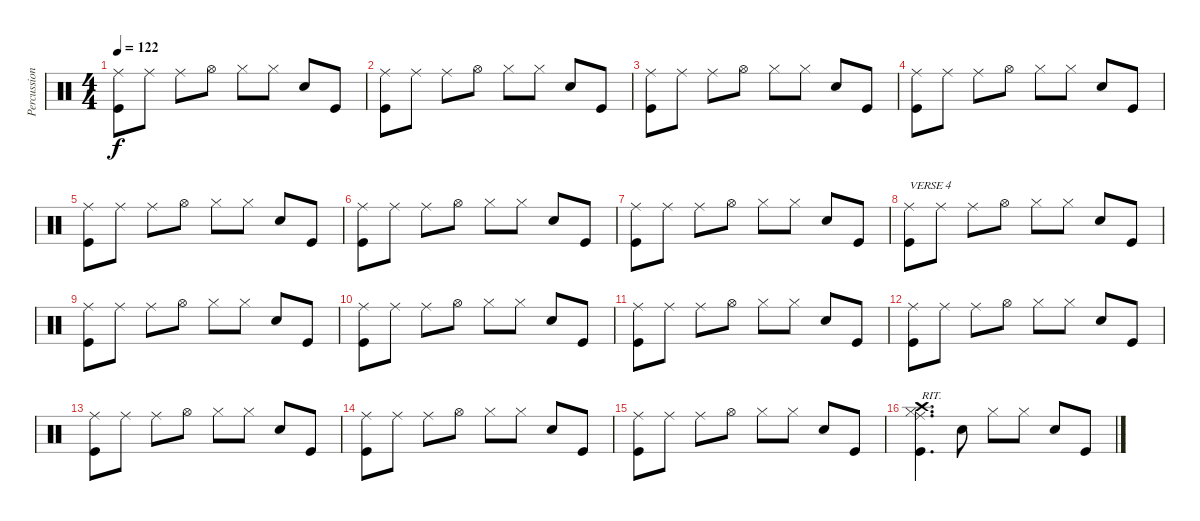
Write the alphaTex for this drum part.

\track ("Percussioni" "Percussion") {instrument percussion}
\staff {score}
\articulation defaults
\ts (4 4)
\tempo 122
\clef neutral
\ks c
("Ride (middle)" "Kick (hit)").8{dy f} "Ride (middle)".8 "Ride (middle)".8 "Hi-Hat (open)".8 "Hi-Hat (closed)".8 "Hi-Hat (closed)".8 "Snare (hit) 2".8 "Kick (hit)".8 |
("Ride (middle)" "Kick (hit)").8 "Ride (middle)".8 "Ride (middle)".8 "Hi-Hat (open)".8 "Hi-Hat (closed)".8 "Hi-Hat (closed)".8 "Snare (hit) 2".8 "Kick (hit)".8 |
("Ride (middle)" "Kick (hit)").8 "Ride (middle)".8 "Ride (middle)".8 "Hi-Hat (open)".8 "Hi-Hat (closed)".8 "Hi-Hat (closed)".8 "Snare (hit) 2".8 "Kick (hit)".8 |
("Ride (middle)" "Kick (hit)").8 "Ride (middle)".8 "Ride (middle)".8 "Hi-Hat (open)".8 "Hi-Hat (closed)".8 "Hi-Hat (closed)".8 "Snare (hit) 2".8 "Kick (hit)".8 |
("Ride (middle)" "Kick (hit)").8 "Ride (middle)".8 "Ride (middle)".8 "Hi-Hat (open)".8 "Hi-Hat (closed)".8 "Hi-Hat (closed)".8 "Snare (hit) 2".8 "Kick (hit)".8 |
("Ride (middle)" "Kick (hit)").8 "Ride (middle)".8 "Ride (middle)".8 "Hi-Hat (open)".8 "Hi-Hat (closed)".8 "Hi-Hat (closed)".8 "Snare (hit) 2".8 "Kick (hit)".8 |
("Ride (middle)" "Kick (hit)").8 "Ride (middle)".8 "Ride (middle)".8 "Hi-Hat (open)".8 "Hi-Hat (closed)".8 "Hi-Hat (closed)".8 "Snare (hit) 2".8 "Kick (hit)".8 |
("Ride (middle)" "Kick (hit)").8{txt "VERSE 4"} "Ride (middle)".8 "Ride (middle)".8 "Hi-Hat (open)".8 "Hi-Hat (closed)".8 "Hi-Hat (closed)".8 "Snare (hit) 2".8 "Kick (hit)".8 |
("Ride (middle)" "Kick (hit)").8 "Ride (middle)".8 "Ride (middle)".8 "Hi-Hat (open)".8 "Hi-Hat (closed)".8 "Hi-Hat (closed)".8 "Snare (hit) 2".8 "Kick (hit)".8 |
("Ride (middle)" "Kick (hit)").8 "Ride (middle)".8 "Ride (middle)".8 "Hi-Hat (open)".8 "Hi-Hat (closed)".8 "Hi-Hat (closed)".8 "Snare (hit) 2".8 "Kick (hit)".8 |
("Ride (middle)" "Kick (hit)").8 "Ride (middle)".8 "Ride (middle)".8 "Hi-Hat (open)".8 "Hi-Hat (closed)".8 "Hi-Hat (closed)".8 "Snare (hit) 2".8 "Kick (hit)".8 |
("Ride (middle)" "Kick (hit)").8 "Ride (middle)".8 "Ride (middle)".8 "Hi-Hat (open)".8 "Hi-Hat (closed)".8 "Hi-Hat (closed)".8 "Snare (hit) 2".8 "Kick (hit)".8 |
("Ride (middle)" "Kick (hit)").8 "Ride (middle)".8 "Ride (middle)".8 "Hi-Hat (open)".8 "Hi-Hat (closed)".8 "Hi-Hat (closed)".8 "Snare (hit) 2".8 "Kick (hit)".8 |
("Ride (middle)" "Kick (hit)").8 "Ride (middle)".8 "Ride (middle)".8 "Hi-Hat (open)".8 "Hi-Hat (closed)".8 "Hi-Hat (closed)".8 "Snare (hit) 2".8 "Kick (hit)".8 |
("Ride (middle)" "Kick (hit)").8 "Ride (middle)".8 "Ride (middle)".8 "Hi-Hat (open)".8 "Hi-Hat (closed)".8 "Hi-Hat (closed)".8 "Snare (hit) 2".8 "Kick (hit)".8 |
("Crash high (hit)" "Ride (middle)" "Hi-Hat (closed)" "Kick (hit)").4{d txt "RIT."} "Snare (hit) 2".8 "Hi-Hat (closed)".8 "Hi-Hat (closed)".8 "Snare (hit) 2".8 "Kick (hit)".8
